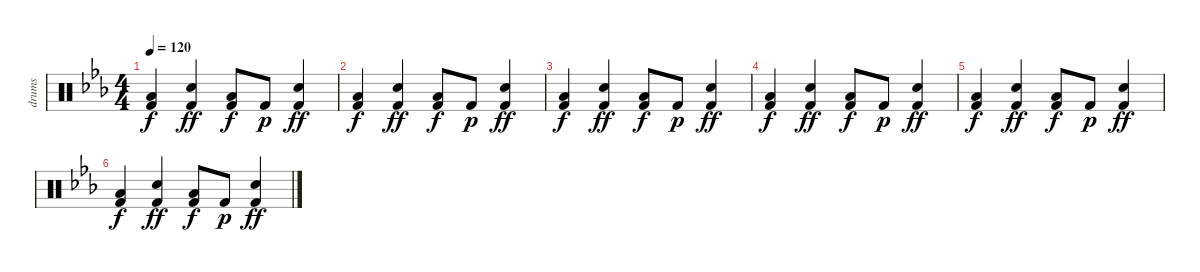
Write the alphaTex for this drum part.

\track ("drums" "drums") {instrument percussion}
\staff {score}
\articulation defaults
\ts (4 4)
\tempo 120
\clef neutral
\ks cminor
("Kick (hit) 2" "Low Floor Tom (hit)").4{dy f} ("Kick (hit) 2" "Hand Clap (hit)").4{dy ff} ("Kick (hit) 2" "Low Floor Tom (hit)").8{dy f} "Kick (hit) 2".8{dy p} ("Kick (hit) 2" "Hand Clap (hit)").4{dy ff} |
("Kick (hit) 2" "Low Floor Tom (hit)").4{dy f} ("Kick (hit) 2" "Hand Clap (hit)").4{dy ff} ("Kick (hit) 2" "Low Floor Tom (hit)").8{dy f} "Kick (hit) 2".8{dy p} ("Kick (hit) 2" "Hand Clap (hit)").4{dy ff} |
("Kick (hit) 2" "Low Floor Tom (hit)").4{dy f} ("Kick (hit) 2" "Hand Clap (hit)").4{dy ff} ("Kick (hit) 2" "Low Floor Tom (hit)").8{dy f} "Kick (hit) 2".8{dy p} ("Kick (hit) 2" "Hand Clap (hit)").4{dy ff} |
("Kick (hit) 2" "Low Floor Tom (hit)").4{dy f} ("Kick (hit) 2" "Hand Clap (hit)").4{dy ff} ("Kick (hit) 2" "Low Floor Tom (hit)").8{dy f} "Kick (hit) 2".8{dy p} ("Kick (hit) 2" "Hand Clap (hit)").4{dy ff} |
("Kick (hit) 2" "Low Floor Tom (hit)").4{dy f} ("Kick (hit) 2" "Hand Clap (hit)").4{dy ff} ("Kick (hit) 2" "Low Floor Tom (hit)").8{dy f} "Kick (hit) 2".8{dy p} ("Kick (hit) 2" "Hand Clap (hit)").4{dy ff} |
("Kick (hit) 2" "Low Floor Tom (hit)").4{dy f} ("Kick (hit) 2" "Hand Clap (hit)").4{dy ff} ("Kick (hit) 2" "Low Floor Tom (hit)").8{dy f} "Kick (hit) 2".8{dy p} ("Kick (hit) 2" "Hand Clap (hit)").4{dy ff}
